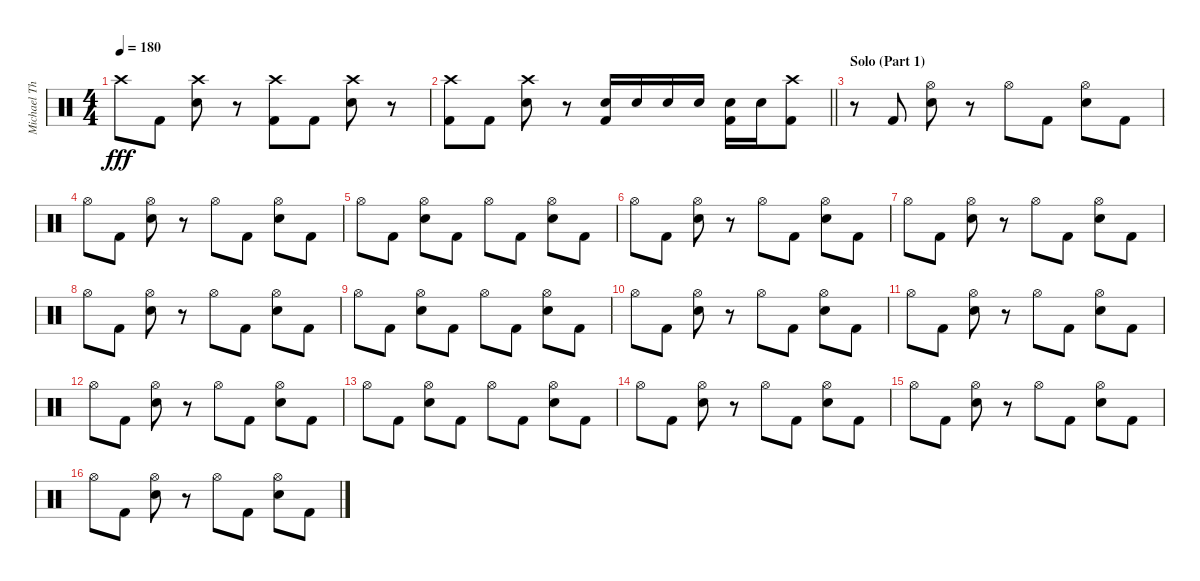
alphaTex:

\track ("Michael Thomas" "Michael Th") {instrument percussion}
\staff {score}
\articulation defaults
\ts (4 4)
\tempo 180
\clef neutral
\ks c "Crash high (hit)".8{dy fff} "Kick (hit) 2".8
("Crash high (hit)" "Electric Snare (hit)").8 r.8 ("Crash high (hit)" "Kick (hit) 2").8 "Kick (hit) 2".8 ("Crash high (hit)" "Electric Snare (hit)").8 r.8 |
\barLineRight lightlight
("Crash high (hit)" "Kick (hit) 2").8 "Kick (hit) 2".8 ("Crash high (hit)" "Electric Snare (hit)").8 r.8 ("Electric Snare (hit)" "Kick (hit) 2").16 "Electric Snare (hit)".16 "Electric Snare (hit)".16 "Electric Snare (hit)".16 ("Electric Snare (hit)" "Kick (hit) 2").16 "Electric Snare (hit)".16 ("Crash high (hit)" "Kick (hit) 2").8 |
\section ("" "Solo (Part 1)")
r.8 "Kick (hit) 2".8 ("Hi-Hat (open)" "Electric Snare (hit)").8 r.8 "Hi-Hat (open)".8 "Kick (hit) 2".8 ("Hi-Hat (open)" "Electric Snare (hit)").8 "Kick (hit) 2".8 |
"Hi-Hat (open)".8 "Kick (hit) 2".8 ("Hi-Hat (open)" "Electric Snare (hit)").8 r.8 "Hi-Hat (open)".8 "Kick (hit) 2".8 ("Hi-Hat (open)" "Electric Snare (hit)").8 "Kick (hit) 2".8 |
"Hi-Hat (open)".8 "Kick (hit) 2".8 ("Hi-Hat (open)" "Electric Snare (hit)").8 "Kick (hit) 2".8 "Hi-Hat (open)".8 "Kick (hit) 2".8 ("Hi-Hat (open)" "Electric Snare (hit)").8 "Kick (hit) 2".8 |
"Hi-Hat (open)".8 "Kick (hit) 2".8 ("Hi-Hat (open)" "Electric Snare (hit)").8 r.8 "Hi-Hat (open)".8 "Kick (hit) 2".8 ("Hi-Hat (open)" "Electric Snare (hit)").8 "Kick (hit) 2".8 |
"Hi-Hat (open)".8 "Kick (hit) 2".8 ("Hi-Hat (open)" "Electric Snare (hit)").8 r.8 "Hi-Hat (open)".8 "Kick (hit) 2".8 ("Hi-Hat (open)" "Electric Snare (hit)").8 "Kick (hit) 2".8 |
"Hi-Hat (open)".8 "Kick (hit) 2".8 ("Hi-Hat (open)" "Electric Snare (hit)").8 r.8 "Hi-Hat (open)".8 "Kick (hit) 2".8 ("Hi-Hat (open)" "Electric Snare (hit)").8 "Kick (hit) 2".8 |
"Hi-Hat (open)".8 "Kick (hit) 2".8 ("Hi-Hat (open)" "Electric Snare (hit)").8 "Kick (hit) 2".8 "Hi-Hat (open)".8 "Kick (hit) 2".8 ("Hi-Hat (open)" "Electric Snare (hit)").8 "Kick (hit) 2".8 |
"Hi-Hat (open)".8 "Kick (hit) 2".8 ("Hi-Hat (open)" "Electric Snare (hit)").8 r.8 "Hi-Hat (open)".8 "Kick (hit) 2".8 ("Hi-Hat (open)" "Electric Snare (hit)").8 "Kick (hit) 2".8 |
"Hi-Hat (open)".8 "Kick (hit) 2".8 ("Hi-Hat (open)" "Electric Snare (hit)").8 r.8 "Hi-Hat (open)".8 "Kick (hit) 2".8 ("Hi-Hat (open)" "Electric Snare (hit)").8 "Kick (hit) 2".8 |
"Hi-Hat (open)".8 "Kick (hit) 2".8 ("Hi-Hat (open)" "Electric Snare (hit)").8 r.8 "Hi-Hat (open)".8 "Kick (hit) 2".8 ("Hi-Hat (open)" "Electric Snare (hit)").8 "Kick (hit) 2".8 |
"Hi-Hat (open)".8 "Kick (hit) 2".8 ("Hi-Hat (open)" "Electric Snare (hit)").8 "Kick (hit) 2".8 "Hi-Hat (open)".8 "Kick (hit) 2".8 ("Hi-Hat (open)" "Electric Snare (hit)").8 "Kick (hit) 2".8 |
"Hi-Hat (open)".8 "Kick (hit) 2".8 ("Hi-Hat (open)" "Electric Snare (hit)").8 r.8 "Hi-Hat (open)".8 "Kick (hit) 2".8 ("Hi-Hat (open)" "Electric Snare (hit)").8 "Kick (hit) 2".8 |
"Hi-Hat (open)".8 "Kick (hit) 2".8 ("Hi-Hat (open)" "Electric Snare (hit)").8 r.8 "Hi-Hat (open)".8 "Kick (hit) 2".8 ("Hi-Hat (open)" "Electric Snare (hit)").8 "Kick (hit) 2".8 |
"Hi-Hat (open)".8 "Kick (hit) 2".8 ("Hi-Hat (open)" "Electric Snare (hit)").8 r.8 "Hi-Hat (open)".8 "Kick (hit) 2".8 ("Hi-Hat (open)" "Electric Snare (hit)").8 "Kick (hit) 2".8
